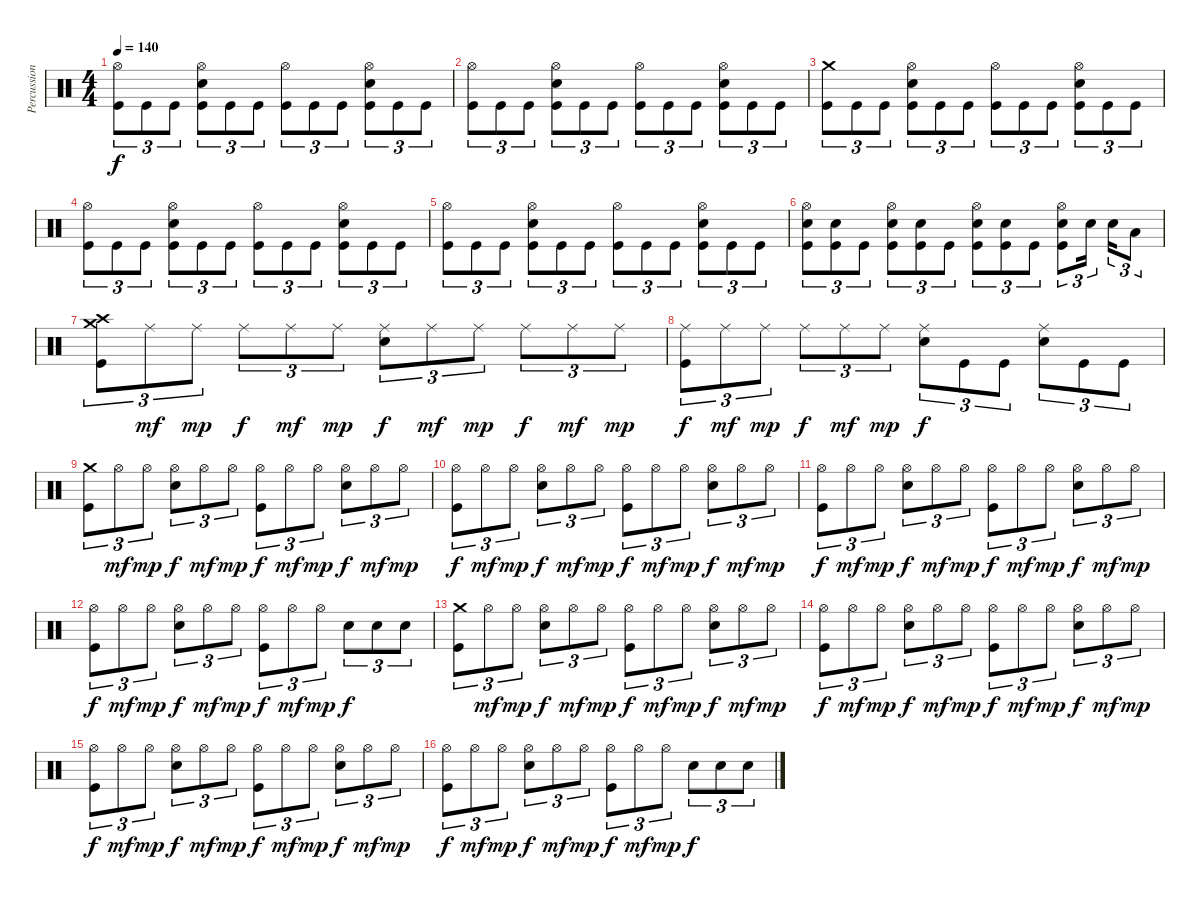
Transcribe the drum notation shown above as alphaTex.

\track ("Percussions" "Percussion") {instrument percussion}
\staff {score}
\articulation defaults
\ts (4 4)
\tempo 140
\clef neutral
\ks c
("Hi-Hat (open)" "Kick (hit)").8{tu (3 2) dy f} "Kick (hit)".8{tu (3 2)} "Kick (hit)".8{tu (3 2)} ("Hi-Hat (open)" "Electric Snare (hit)" "Kick (hit)").8{tu (3 2)} "Kick (hit)".8{tu (3 2)} "Kick (hit)".8{tu (3 2)} ("Hi-Hat (open)" "Kick (hit)").8{tu (3 2)} "Kick (hit)".8{tu (3 2)} "Kick (hit)".8{tu (3 2)} ("Hi-Hat (open)" "Electric Snare (hit)" "Kick (hit)").8{tu (3 2)} "Kick (hit)".8{tu (3 2)} "Kick (hit)".8{tu (3 2)} |
("Hi-Hat (open)" "Kick (hit)").8{tu (3 2)} "Kick (hit)".8{tu (3 2)} "Kick (hit)".8{tu (3 2)} ("Hi-Hat (open)" "Electric Snare (hit)" "Kick (hit)").8{tu (3 2)} "Kick (hit)".8{tu (3 2)} "Kick (hit)".8{tu (3 2)} ("Hi-Hat (open)" "Kick (hit)").8{tu (3 2)} "Kick (hit)".8{tu (3 2)} "Kick (hit)".8{tu (3 2)} ("Hi-Hat (open)" "Electric Snare (hit)" "Kick (hit)").8{tu (3 2)} "Kick (hit)".8{tu (3 2)} "Kick (hit)".8{tu (3 2)} |
("Crash medium (hit)" "Kick (hit)").8{tu (3 2)} "Kick (hit)".8{tu (3 2)} "Kick (hit)".8{tu (3 2)} ("Hi-Hat (open)" "Electric Snare (hit)" "Kick (hit)").8{tu (3 2)} "Kick (hit)".8{tu (3 2)} "Kick (hit)".8{tu (3 2)} ("Hi-Hat (open)" "Kick (hit)").8{tu (3 2)} "Kick (hit)".8{tu (3 2)} "Kick (hit)".8{tu (3 2)} ("Hi-Hat (open)" "Electric Snare (hit)" "Kick (hit)").8{tu (3 2)} "Kick (hit)".8{tu (3 2)} "Kick (hit)".8{tu (3 2)} |
("Hi-Hat (open)" "Kick (hit)").8{tu (3 2)} "Kick (hit)".8{tu (3 2)} "Kick (hit)".8{tu (3 2)} ("Hi-Hat (open)" "Electric Snare (hit)" "Kick (hit)").8{tu (3 2)} "Kick (hit)".8{tu (3 2)} "Kick (hit)".8{tu (3 2)} ("Hi-Hat (open)" "Kick (hit)").8{tu (3 2)} "Kick (hit)".8{tu (3 2)} "Kick (hit)".8{tu (3 2)} ("Hi-Hat (open)" "Electric Snare (hit)" "Kick (hit)").8{tu (3 2)} "Kick (hit)".8{tu (3 2)} "Kick (hit)".8{tu (3 2)} |
("Hi-Hat (open)" "Kick (hit)").8{tu (3 2)} "Kick (hit)".8{tu (3 2)} "Kick (hit)".8{tu (3 2)} ("Hi-Hat (open)" "Electric Snare (hit)" "Kick (hit)").8{tu (3 2)} "Kick (hit)".8{tu (3 2)} "Kick (hit)".8{tu (3 2)} ("Hi-Hat (open)" "Kick (hit)").8{tu (3 2)} "Kick (hit)".8{tu (3 2)} "Kick (hit)".8{tu (3 2)} ("Hi-Hat (open)" "Electric Snare (hit)" "Kick (hit)").8{tu (3 2)} "Kick (hit)".8{tu (3 2)} "Kick (hit)".8{tu (3 2)} |
("Hi-Hat (open)" "Electric Snare (hit)" "Kick (hit)").8{tu (3 2)} ("Electric Snare (hit)" "Kick (hit)").8{tu (3 2)} "Kick (hit)".8{tu (3 2)} ("Hi-Hat (open)" "Electric Snare (hit)" "Kick (hit)").8{tu (3 2)} ("Electric Snare (hit)" "Kick (hit)").8{tu (3 2)} "Kick (hit)".8{tu (3 2)} ("Hi-Hat (open)" "Electric Snare (hit)" "Kick (hit)").8{tu (3 2)} ("Electric Snare (hit)" "Kick (hit)").8{tu (3 2)} "Kick (hit)".8{tu (3 2)} ("Hi-Hat (open)" "Electric Snare (hit)" "Kick (hit)").8{tu (3 2)} "Electric Snare (hit)".16{tu (3 2) beam splitsecondary} "Electric Snare (hit)".16{tu (3 2)} "Low Tom (hit)".8{tu (3 2)} |
("Crash high (hit)" "Crash medium (hit)" "Kick (hit)").8{tu (3 2)} "Ride (middle)".8{tu (3 2) dy mf} "Ride (middle)".8{tu (3 2) dy mp} "Ride (middle)".8{tu (3 2) dy f} "Ride (middle)".8{tu (3 2) dy mf} "Ride (middle)".8{tu (3 2) dy mp} ("Ride (middle)" "Electric Snare (hit)").8{tu (3 2) dy f} "Ride (middle)".8{tu (3 2) dy mf} "Ride (middle)".8{tu (3 2) dy mp} "Ride (middle)".8{tu (3 2) dy f} "Ride (middle)".8{tu (3 2) dy mf} "Ride (middle)".8{tu (3 2) dy mp} |
("Ride (middle)" "Kick (hit)").8{tu (3 2) dy f} "Ride (middle)".8{tu (3 2) dy mf} "Ride (middle)".8{tu (3 2) dy mp} "Ride (middle)".8{tu (3 2) dy f} "Ride (middle)".8{tu (3 2) dy mf} "Ride (middle)".8{tu (3 2) dy mp} ("Ride (middle)" "Electric Snare (hit)").8{tu (3 2) dy f} "Kick (hit)".8{tu (3 2)} "Kick (hit)".8{tu (3 2)} ("Ride (middle)" "Electric Snare (hit)").8{tu (3 2)} "Kick (hit)".8{tu (3 2)} "Kick (hit)".8{tu (3 2)} |
("Crash medium (hit)" "Kick (hit)").8{tu (3 2)} "Hi-Hat (open)".8{tu (3 2) dy mf} "Hi-Hat (open)".8{tu (3 2) dy mp} ("Hi-Hat (open)" "Electric Snare (hit)").8{tu (3 2) dy f} "Hi-Hat (open)".8{tu (3 2) dy mf} "Hi-Hat (open)".8{tu (3 2) dy mp} ("Hi-Hat (open)" "Kick (hit)").8{tu (3 2) dy f} "Hi-Hat (open)".8{tu (3 2) dy mf} "Hi-Hat (open)".8{tu (3 2) dy mp} ("Hi-Hat (open)" "Electric Snare (hit)").8{tu (3 2) dy f} "Hi-Hat (open)".8{tu (3 2) dy mf} "Hi-Hat (open)".8{tu (3 2) dy mp} |
("Hi-Hat (open)" "Kick (hit)").8{tu (3 2) dy f} "Hi-Hat (open)".8{tu (3 2) dy mf} "Hi-Hat (open)".8{tu (3 2) dy mp} ("Hi-Hat (open)" "Electric Snare (hit)").8{tu (3 2) dy f} "Hi-Hat (open)".8{tu (3 2) dy mf} "Hi-Hat (open)".8{tu (3 2) dy mp} ("Hi-Hat (open)" "Kick (hit)").8{tu (3 2) dy f} "Hi-Hat (open)".8{tu (3 2) dy mf} "Hi-Hat (open)".8{tu (3 2) dy mp} ("Hi-Hat (open)" "Electric Snare (hit)").8{tu (3 2) dy f} "Hi-Hat (open)".8{tu (3 2) dy mf} "Hi-Hat (open)".8{tu (3 2) dy mp} |
("Hi-Hat (open)" "Kick (hit)").8{tu (3 2) dy f} "Hi-Hat (open)".8{tu (3 2) dy mf} "Hi-Hat (open)".8{tu (3 2) dy mp} ("Hi-Hat (open)" "Electric Snare (hit)").8{tu (3 2) dy f} "Hi-Hat (open)".8{tu (3 2) dy mf} "Hi-Hat (open)".8{tu (3 2) dy mp} ("Hi-Hat (open)" "Kick (hit)").8{tu (3 2) dy f} "Hi-Hat (open)".8{tu (3 2) dy mf} "Hi-Hat (open)".8{tu (3 2) dy mp} ("Hi-Hat (open)" "Electric Snare (hit)").8{tu (3 2) dy f} "Hi-Hat (open)".8{tu (3 2) dy mf} "Hi-Hat (open)".8{tu (3 2) dy mp} |
("Hi-Hat (open)" "Kick (hit)").8{tu (3 2) dy f} "Hi-Hat (open)".8{tu (3 2) dy mf} "Hi-Hat (open)".8{tu (3 2) dy mp} ("Hi-Hat (open)" "Electric Snare (hit)").8{tu (3 2) dy f} "Hi-Hat (open)".8{tu (3 2) dy mf} "Hi-Hat (open)".8{tu (3 2) dy mp} ("Hi-Hat (open)" "Kick (hit)").8{tu (3 2) dy f} "Hi-Hat (open)".8{tu (3 2) dy mf} "Hi-Hat (open)".8{tu (3 2) dy mp} "Electric Snare (hit)".8{tu (3 2) dy f} "Electric Snare (hit)".8{tu (3 2)} "Electric Snare (hit)".8{tu (3 2)} |
("Crash medium (hit)" "Kick (hit)").8{tu (3 2)} "Hi-Hat (open)".8{tu (3 2) dy mf} "Hi-Hat (open)".8{tu (3 2) dy mp} ("Hi-Hat (open)" "Electric Snare (hit)").8{tu (3 2) dy f} "Hi-Hat (open)".8{tu (3 2) dy mf} "Hi-Hat (open)".8{tu (3 2) dy mp} ("Hi-Hat (open)" "Kick (hit)").8{tu (3 2) dy f} "Hi-Hat (open)".8{tu (3 2) dy mf} "Hi-Hat (open)".8{tu (3 2) dy mp} ("Hi-Hat (open)" "Electric Snare (hit)").8{tu (3 2) dy f} "Hi-Hat (open)".8{tu (3 2) dy mf} "Hi-Hat (open)".8{tu (3 2) dy mp} |
("Hi-Hat (open)" "Kick (hit)").8{tu (3 2) dy f} "Hi-Hat (open)".8{tu (3 2) dy mf} "Hi-Hat (open)".8{tu (3 2) dy mp} ("Hi-Hat (open)" "Electric Snare (hit)").8{tu (3 2) dy f} "Hi-Hat (open)".8{tu (3 2) dy mf} "Hi-Hat (open)".8{tu (3 2) dy mp} ("Hi-Hat (open)" "Kick (hit)").8{tu (3 2) dy f} "Hi-Hat (open)".8{tu (3 2) dy mf} "Hi-Hat (open)".8{tu (3 2) dy mp} ("Hi-Hat (open)" "Electric Snare (hit)").8{tu (3 2) dy f} "Hi-Hat (open)".8{tu (3 2) dy mf} "Hi-Hat (open)".8{tu (3 2) dy mp} |
("Hi-Hat (open)" "Kick (hit)").8{tu (3 2) dy f} "Hi-Hat (open)".8{tu (3 2) dy mf} "Hi-Hat (open)".8{tu (3 2) dy mp} ("Hi-Hat (open)" "Electric Snare (hit)").8{tu (3 2) dy f} "Hi-Hat (open)".8{tu (3 2) dy mf} "Hi-Hat (open)".8{tu (3 2) dy mp} ("Hi-Hat (open)" "Kick (hit)").8{tu (3 2) dy f} "Hi-Hat (open)".8{tu (3 2) dy mf} "Hi-Hat (open)".8{tu (3 2) dy mp} ("Hi-Hat (open)" "Electric Snare (hit)").8{tu (3 2) dy f} "Hi-Hat (open)".8{tu (3 2) dy mf} "Hi-Hat (open)".8{tu (3 2) dy mp} |
("Hi-Hat (open)" "Kick (hit)").8{tu (3 2) dy f} "Hi-Hat (open)".8{tu (3 2) dy mf} "Hi-Hat (open)".8{tu (3 2) dy mp} ("Hi-Hat (open)" "Electric Snare (hit)").8{tu (3 2) dy f} "Hi-Hat (open)".8{tu (3 2) dy mf} "Hi-Hat (open)".8{tu (3 2) dy mp} ("Hi-Hat (open)" "Kick (hit)").8{tu (3 2) dy f} "Hi-Hat (open)".8{tu (3 2) dy mf} "Hi-Hat (open)".8{tu (3 2) dy mp} "Electric Snare (hit)".8{tu (3 2) dy f} "Electric Snare (hit)".8{tu (3 2)} "Electric Snare (hit)".8{tu (3 2)}
